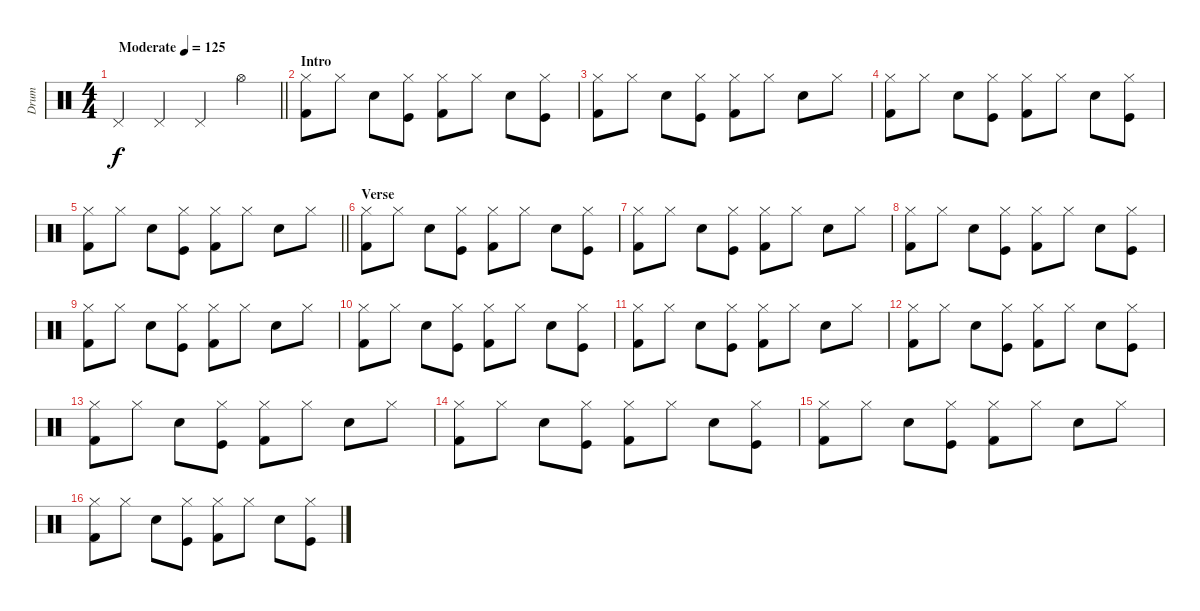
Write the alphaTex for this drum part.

\track ("Drum" "Drum") {instrument percussion}
\staff {score}
\articulation defaults
\ts (4 4)
\tempo (125 "Moderate")
\clef neutral
\barLineRight lightlight
\ks c "Pedal Hi-Hat (hit)".4{dy f} "Pedal Hi-Hat (hit)".4 "Pedal Hi-Hat (hit)".4 "Hi-Hat (open)".4
|
\section ("" "Intro")
("Hi-Hat (closed)" "Kick (hit) 2").8 "Hi-Hat (closed)".8 "Electric Snare (hit)".8 ("Hi-Hat (closed)" "Kick (hit)").8 ("Hi-Hat (closed)" "Kick (hit) 2").8 "Hi-Hat (closed)".8 "Electric Snare (hit)".8 ("Hi-Hat (closed)" "Kick (hit)").8 |
("Hi-Hat (closed)" "Kick (hit) 2").8 "Hi-Hat (closed)".8 "Electric Snare (hit)".8 ("Hi-Hat (closed)" "Kick (hit)").8 ("Hi-Hat (closed)" "Kick (hit) 2").8 "Hi-Hat (closed)".8 "Electric Snare (hit)".8 "Hi-Hat (closed)".8 |
("Hi-Hat (closed)" "Kick (hit) 2").8 "Hi-Hat (closed)".8 "Electric Snare (hit)".8 ("Hi-Hat (closed)" "Kick (hit)").8 ("Hi-Hat (closed)" "Kick (hit) 2").8 "Hi-Hat (closed)".8 "Electric Snare (hit)".8 ("Hi-Hat (closed)" "Kick (hit)").8 |
\barLineRight lightlight
("Hi-Hat (closed)" "Kick (hit) 2").8 "Hi-Hat (closed)".8 "Electric Snare (hit)".8 ("Hi-Hat (closed)" "Kick (hit)").8 ("Hi-Hat (closed)" "Kick (hit) 2").8 "Hi-Hat (closed)".8 "Electric Snare (hit)".8 "Hi-Hat (closed)".8 |
\section ("" "Verse")
("Hi-Hat (closed)" "Kick (hit) 2").8 "Hi-Hat (closed)".8 "Electric Snare (hit)".8 ("Hi-Hat (closed)" "Kick (hit)").8 ("Hi-Hat (closed)" "Kick (hit) 2").8 "Hi-Hat (closed)".8 "Electric Snare (hit)".8 ("Hi-Hat (closed)" "Kick (hit)").8 |
("Hi-Hat (closed)" "Kick (hit) 2").8 "Hi-Hat (closed)".8 "Electric Snare (hit)".8 ("Hi-Hat (closed)" "Kick (hit)").8 ("Hi-Hat (closed)" "Kick (hit) 2").8 "Hi-Hat (closed)".8 "Electric Snare (hit)".8 "Hi-Hat (closed)".8 |
("Hi-Hat (closed)" "Kick (hit) 2").8 "Hi-Hat (closed)".8 "Electric Snare (hit)".8 ("Hi-Hat (closed)" "Kick (hit)").8 ("Hi-Hat (closed)" "Kick (hit) 2").8 "Hi-Hat (closed)".8 "Electric Snare (hit)".8 ("Hi-Hat (closed)" "Kick (hit)").8 |
("Hi-Hat (closed)" "Kick (hit) 2").8 "Hi-Hat (closed)".8 "Electric Snare (hit)".8 ("Hi-Hat (closed)" "Kick (hit)").8 ("Hi-Hat (closed)" "Kick (hit) 2").8 "Hi-Hat (closed)".8 "Electric Snare (hit)".8 "Hi-Hat (closed)".8 |
("Hi-Hat (closed)" "Kick (hit) 2").8 "Hi-Hat (closed)".8 "Electric Snare (hit)".8 ("Hi-Hat (closed)" "Kick (hit)").8 ("Hi-Hat (closed)" "Kick (hit) 2").8 "Hi-Hat (closed)".8 "Electric Snare (hit)".8 ("Hi-Hat (closed)" "Kick (hit)").8 |
("Hi-Hat (closed)" "Kick (hit) 2").8 "Hi-Hat (closed)".8 "Electric Snare (hit)".8 ("Hi-Hat (closed)" "Kick (hit)").8 ("Hi-Hat (closed)" "Kick (hit) 2").8 "Hi-Hat (closed)".8 "Electric Snare (hit)".8 "Hi-Hat (closed)".8 |
("Hi-Hat (closed)" "Kick (hit) 2").8 "Hi-Hat (closed)".8 "Electric Snare (hit)".8 ("Hi-Hat (closed)" "Kick (hit)").8 ("Hi-Hat (closed)" "Kick (hit) 2").8 "Hi-Hat (closed)".8 "Electric Snare (hit)".8 ("Hi-Hat (closed)" "Kick (hit)").8 |
("Hi-Hat (closed)" "Kick (hit) 2").8 "Hi-Hat (closed)".8 "Electric Snare (hit)".8 ("Hi-Hat (closed)" "Kick (hit)").8 ("Hi-Hat (closed)" "Kick (hit) 2").8 "Hi-Hat (closed)".8 "Electric Snare (hit)".8 "Hi-Hat (closed)".8 |
("Hi-Hat (closed)" "Kick (hit) 2").8 "Hi-Hat (closed)".8 "Electric Snare (hit)".8 ("Hi-Hat (closed)" "Kick (hit)").8 ("Hi-Hat (closed)" "Kick (hit) 2").8 "Hi-Hat (closed)".8 "Electric Snare (hit)".8 ("Hi-Hat (closed)" "Kick (hit)").8 |
("Hi-Hat (closed)" "Kick (hit) 2").8 "Hi-Hat (closed)".8 "Electric Snare (hit)".8 ("Hi-Hat (closed)" "Kick (hit)").8 ("Hi-Hat (closed)" "Kick (hit) 2").8 "Hi-Hat (closed)".8 "Electric Snare (hit)".8 "Hi-Hat (closed)".8 |
("Hi-Hat (closed)" "Kick (hit) 2").8 "Hi-Hat (closed)".8 "Electric Snare (hit)".8 ("Hi-Hat (closed)" "Kick (hit)").8 ("Hi-Hat (closed)" "Kick (hit) 2").8 "Hi-Hat (closed)".8 "Electric Snare (hit)".8 ("Hi-Hat (closed)" "Kick (hit)").8
